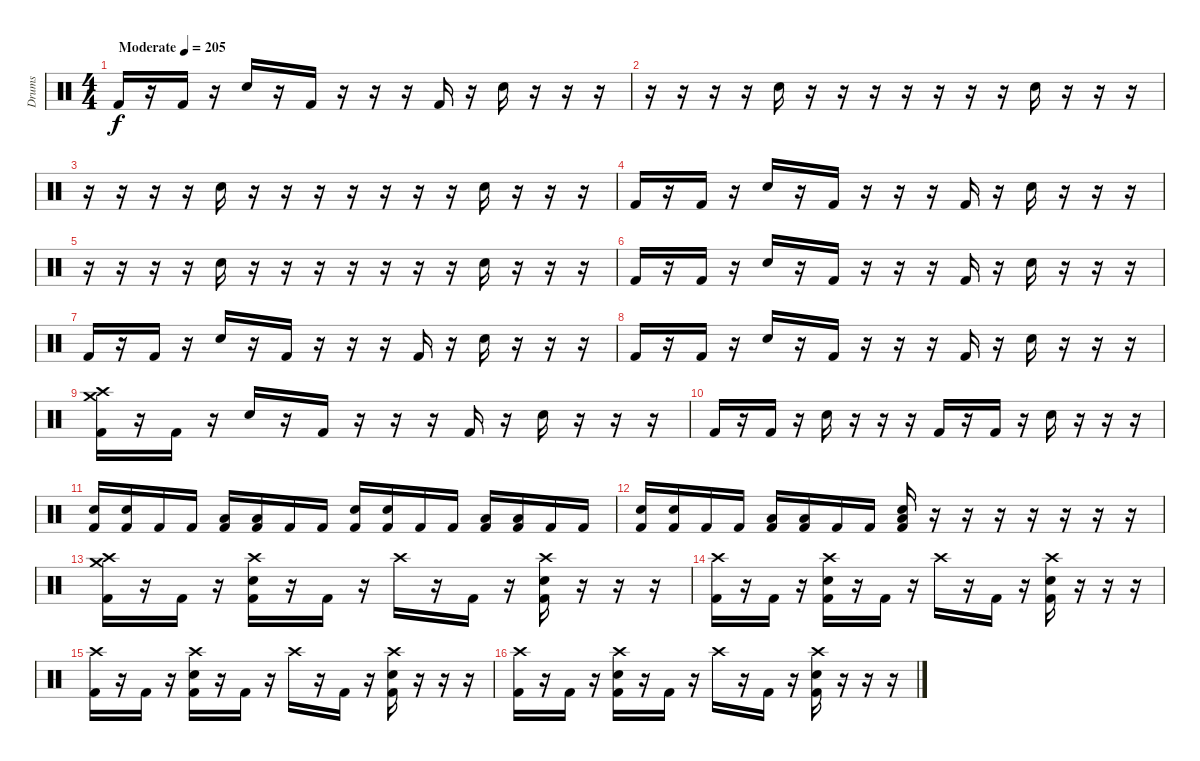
\track ("Drums" "Drums") {instrument percussion}
\staff {score}
\articulation defaults
\ts (4 4)
\tempo (205 "Moderate")
\clef neutral
\ks c "Kick (hit) 2".16{dy f}
r.16 "Kick (hit) 2".16 r.16 "Electric Snare (hit)".16 r.16 "Kick (hit) 2".16 r.16 r.16 r.16 "Kick (hit) 2".16 r.16 "Electric Snare (hit)".16 r.16 r.16 r.16 |
r.16 r.16 r.16 r.16 "Electric Snare (hit)".16 r.16 r.16 r.16 r.16 r.16 r.16 r.16 "Electric Snare (hit)".16 r.16 r.16 r.16 |
r.16 r.16 r.16 r.16 "Electric Snare (hit)".16 r.16 r.16 r.16 r.16 r.16 r.16 r.16 "Electric Snare (hit)".16 r.16 r.16 r.16 |
"Kick (hit) 2".16 r.16 "Kick (hit) 2".16 r.16 "Electric Snare (hit)".16 r.16 "Kick (hit) 2".16 r.16 r.16 r.16 "Kick (hit) 2".16 r.16 "Electric Snare (hit)".16 r.16 r.16 r.16 |
r.16 r.16 r.16 r.16 "Electric Snare (hit)".16 r.16 r.16 r.16 r.16 r.16 r.16 r.16 "Electric Snare (hit)".16 r.16 r.16 r.16 |
"Kick (hit) 2".16 r.16 "Kick (hit) 2".16 r.16 "Electric Snare (hit)".16 r.16 "Kick (hit) 2".16 r.16 r.16 r.16 "Kick (hit) 2".16 r.16 "Electric Snare (hit)".16 r.16 r.16 r.16 |
"Kick (hit) 2".16 r.16 "Kick (hit) 2".16 r.16 "Electric Snare (hit)".16 r.16 "Kick (hit) 2".16 r.16 r.16 r.16 "Kick (hit) 2".16 r.16 "Electric Snare (hit)".16 r.16 r.16 r.16 |
"Kick (hit) 2".16 r.16 "Kick (hit) 2".16 r.16 "Electric Snare (hit)".16 r.16 "Kick (hit) 2".16 r.16 r.16 r.16 "Kick (hit) 2".16 r.16 "Electric Snare (hit)".16 r.16 r.16 r.16 |
("Crash high (hit)" "Crash medium (hit)" "Kick (hit) 2").16 r.16 "Kick (hit) 2".16 r.16 "Electric Snare (hit)".16 r.16 "Kick (hit) 2".16 r.16 r.16 r.16 "Kick (hit) 2".16 r.16 "Electric Snare (hit)".16 r.16 r.16 r.16 |
"Kick (hit) 2".16 r.16 "Kick (hit) 2".16 r.16 "Electric Snare (hit)".16 r.16 r.16 r.16 "Kick (hit) 2".16 r.16 "Kick (hit) 2".16 r.16 "Electric Snare (hit)".16 r.16 r.16 r.16 |
("Electric Snare (hit)" "Kick (hit) 2").16 ("Electric Snare (hit)" "Kick (hit) 2").16 "Kick (hit) 2".16 "Kick (hit) 2".16 ("Low Tom (hit)" "Kick (hit) 2").16 ("Low Tom (hit)" "Kick (hit) 2").16 "Kick (hit) 2".16 "Kick (hit) 2".16 ("Electric Snare (hit)" "Kick (hit) 2").16 ("Electric Snare (hit)" "Kick (hit) 2").16 "Kick (hit) 2".16 "Kick (hit) 2".16 ("Low Tom (hit)" "Kick (hit) 2").16 ("Low Tom (hit)" "Kick (hit) 2").16 "Kick (hit) 2".16 "Kick (hit) 2".16 |
("Electric Snare (hit)" "Kick (hit) 2").16 ("Electric Snare (hit)" "Kick (hit) 2").16 "Kick (hit) 2".16 "Kick (hit) 2".16 ("Low Tom (hit)" "Kick (hit) 2").16 ("Low Tom (hit)" "Kick (hit) 2").16 "Kick (hit) 2".16 "Kick (hit) 2".16 ("Low Floor Tom (hit)" "Electric Snare (hit)" "Kick (hit) 2").16 r.16 r.16 r.16 r.16 r.16 r.16 r.16 |
("Crash high (hit)" "Crash medium (hit)" "Kick (hit) 2").16 r.16 "Kick (hit) 2".16 r.16 ("Crash high (hit)" "Electric Snare (hit)" "Kick (hit) 2").16 r.16 "Kick (hit) 2".16 r.16 "Crash high (hit)".16 r.16 "Kick (hit) 2".16 r.16 ("Crash high (hit)" "Electric Snare (hit)" "Kick (hit) 2").16 r.16 r.16 r.16 |
("Crash high (hit)" "Kick (hit) 2").16 r.16 "Kick (hit) 2".16 r.16 ("Crash high (hit)" "Electric Snare (hit)" "Kick (hit) 2").16 r.16 "Kick (hit) 2".16 r.16 "Crash high (hit)".16 r.16 "Kick (hit) 2".16 r.16 ("Crash high (hit)" "Electric Snare (hit)" "Kick (hit) 2").16 r.16 r.16 r.16 |
("Crash high (hit)" "Kick (hit) 2").16 r.16 "Kick (hit) 2".16 r.16 ("Crash high (hit)" "Electric Snare (hit)" "Kick (hit) 2").16 r.16 "Kick (hit) 2".16 r.16 "Crash high (hit)".16 r.16 "Kick (hit) 2".16 r.16 ("Crash high (hit)" "Electric Snare (hit)" "Kick (hit) 2").16 r.16 r.16 r.16 |
("Crash high (hit)" "Kick (hit) 2").16 r.16 "Kick (hit) 2".16 r.16 ("Crash high (hit)" "Electric Snare (hit)" "Kick (hit) 2").16 r.16 "Kick (hit) 2".16 r.16 "Crash high (hit)".16 r.16 "Kick (hit) 2".16 r.16 ("Crash high (hit)" "Electric Snare (hit)" "Kick (hit) 2").16 r.16 r.16 r.16
